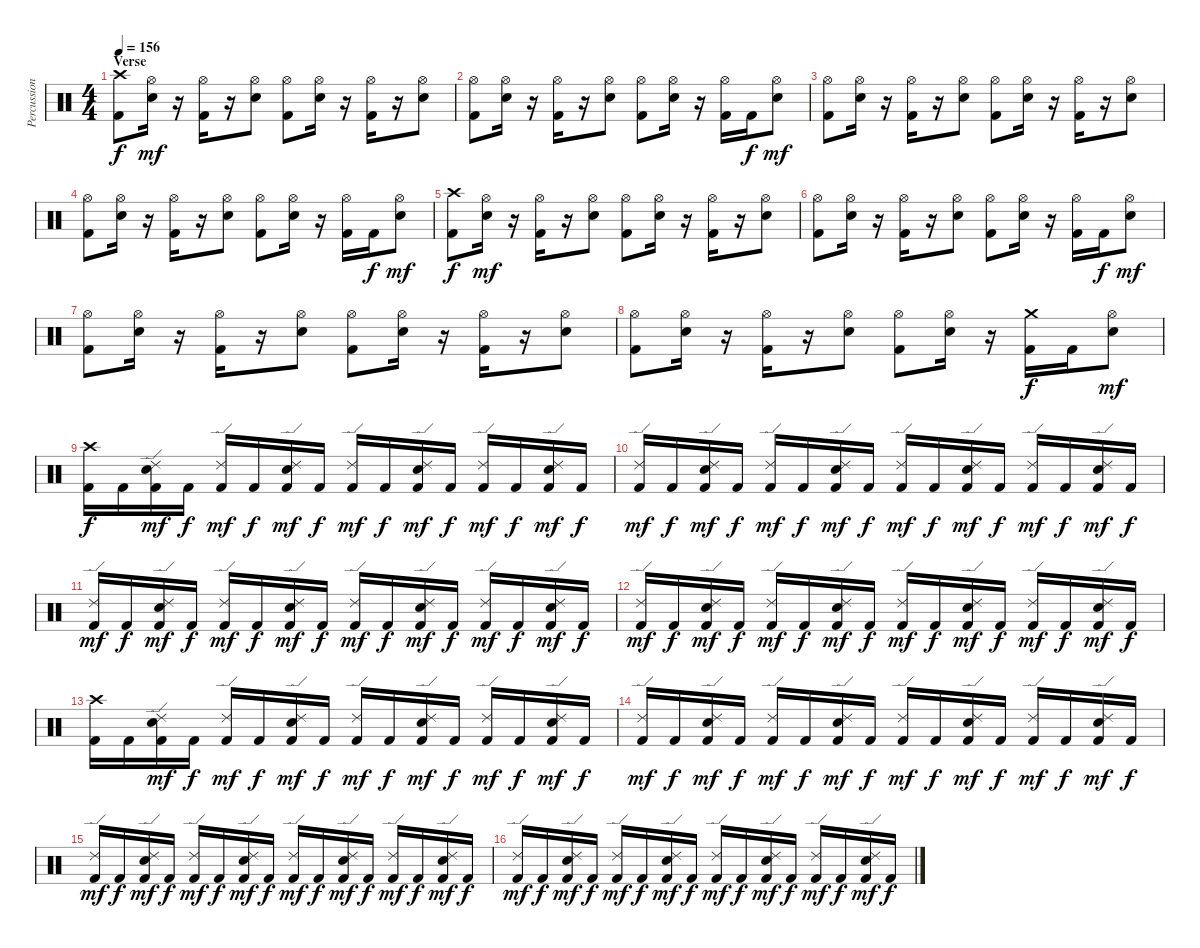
\track ("Percussion" "Percussion") {instrument percussion}
\staff {score}
\articulation defaults
\ts (4 4)
\section ("" "Verse")
\tempo 156
\clef neutral
\ks c
("Crash high (hit)" "Kick (hit) 2").8{dy f} ("Hi-Hat (open)" "Electric Snare (hit)").16{dy mf} r.16 ("Hi-Hat (open)" "Kick (hit) 2").16 r.16 ("Hi-Hat (open)" "Electric Snare (hit)").8 ("Hi-Hat (open)" "Kick (hit) 2").8 ("Hi-Hat (open)" "Electric Snare (hit)").16 r.16 ("Hi-Hat (open)" "Kick (hit) 2").16 r.16 ("Hi-Hat (open)" "Electric Snare (hit)").8 |
("Hi-Hat (open)" "Kick (hit) 2").8 ("Hi-Hat (open)" "Electric Snare (hit)").16 r.16 ("Hi-Hat (open)" "Kick (hit) 2").16 r.16 ("Hi-Hat (open)" "Electric Snare (hit)").8 ("Hi-Hat (open)" "Kick (hit) 2").8 ("Hi-Hat (open)" "Electric Snare (hit)").16 r.16 ("Hi-Hat (open)" "Kick (hit) 2").16 "Kick (hit) 2".16{dy f} ("Hi-Hat (open)" "Electric Snare (hit)").8{dy mf} |
("Hi-Hat (open)" "Kick (hit) 2").8 ("Hi-Hat (open)" "Electric Snare (hit)").16 r.16 ("Hi-Hat (open)" "Kick (hit) 2").16 r.16 ("Hi-Hat (open)" "Electric Snare (hit)").8 ("Hi-Hat (open)" "Kick (hit) 2").8 ("Hi-Hat (open)" "Electric Snare (hit)").16 r.16 ("Hi-Hat (open)" "Kick (hit) 2").16 r.16 ("Hi-Hat (open)" "Electric Snare (hit)").8 |
("Hi-Hat (open)" "Kick (hit) 2").8 ("Hi-Hat (open)" "Electric Snare (hit)").16 r.16 ("Hi-Hat (open)" "Kick (hit) 2").16 r.16 ("Hi-Hat (open)" "Electric Snare (hit)").8 ("Hi-Hat (open)" "Kick (hit) 2").8 ("Hi-Hat (open)" "Electric Snare (hit)").16 r.16 ("Hi-Hat (open)" "Kick (hit) 2").16 "Kick (hit) 2".16{dy f} ("Hi-Hat (open)" "Electric Snare (hit)").8{dy mf} |
("Crash high (hit)" "Kick (hit) 2").8{dy f} ("Hi-Hat (open)" "Electric Snare (hit)").16{dy mf} r.16 ("Hi-Hat (open)" "Kick (hit) 2").16 r.16 ("Hi-Hat (open)" "Electric Snare (hit)").8 ("Hi-Hat (open)" "Kick (hit) 2").8 ("Hi-Hat (open)" "Electric Snare (hit)").16 r.16 ("Hi-Hat (open)" "Kick (hit) 2").16 r.16 ("Hi-Hat (open)" "Electric Snare (hit)").8 |
("Hi-Hat (open)" "Kick (hit) 2").8 ("Hi-Hat (open)" "Electric Snare (hit)").16 r.16 ("Hi-Hat (open)" "Kick (hit) 2").16 r.16 ("Hi-Hat (open)" "Electric Snare (hit)").8 ("Hi-Hat (open)" "Kick (hit) 2").8 ("Hi-Hat (open)" "Electric Snare (hit)").16 r.16 ("Hi-Hat (open)" "Kick (hit) 2").16 "Kick (hit) 2".16{dy f} ("Hi-Hat (open)" "Electric Snare (hit)").8{dy mf} |
("Hi-Hat (open)" "Kick (hit) 2").8 ("Hi-Hat (open)" "Electric Snare (hit)").16 r.16 ("Hi-Hat (open)" "Kick (hit) 2").16 r.16 ("Hi-Hat (open)" "Electric Snare (hit)").8 ("Hi-Hat (open)" "Kick (hit) 2").8 ("Hi-Hat (open)" "Electric Snare (hit)").16 r.16 ("Hi-Hat (open)" "Kick (hit) 2").16 r.16 ("Hi-Hat (open)" "Electric Snare (hit)").8 |
("Hi-Hat (open)" "Kick (hit) 2").8 ("Hi-Hat (open)" "Electric Snare (hit)").16 r.16 ("Hi-Hat (open)" "Kick (hit) 2").16 r.16 ("Hi-Hat (open)" "Electric Snare (hit)").8 ("Hi-Hat (open)" "Kick (hit) 2").8 ("Hi-Hat (open)" "Electric Snare (hit)").16 r.16 ("Crash medium (hit)" "Kick (hit) 2").16{dy f} "Kick (hit) 2".16 ("Hi-Hat (open)" "Electric Snare (hit)").8{dy mf} |
("Crash high (hit)" "Kick (hit) 2").16{dy f} "Kick (hit) 2".16 ("Ride (edge) 2" "Electric Snare (hit)" "Kick (hit) 2").16{dy mf} "Kick (hit) 2".16{dy f} ("Ride (edge) 2" "Kick (hit) 2").16{dy mf} "Kick (hit) 2".16{dy f} ("Ride (edge) 2" "Electric Snare (hit)" "Kick (hit) 2").16{dy mf} "Kick (hit) 2".16{dy f} ("Ride (edge) 2" "Kick (hit) 2").16{dy mf} "Kick (hit) 2".16{dy f} ("Ride (edge) 2" "Electric Snare (hit)" "Kick (hit) 2").16{dy mf} "Kick (hit) 2".16{dy f} ("Ride (edge) 2" "Kick (hit) 2").16{dy mf} "Kick (hit) 2".16{dy f} ("Ride (edge) 2" "Electric Snare (hit)" "Kick (hit) 2").16{dy mf} "Kick (hit) 2".16{dy f} |
("Ride (edge) 2" "Kick (hit) 2").16{dy mf} "Kick (hit) 2".16{dy f} ("Ride (edge) 2" "Electric Snare (hit)" "Kick (hit) 2").16{dy mf} "Kick (hit) 2".16{dy f} ("Ride (edge) 2" "Kick (hit) 2").16{dy mf} "Kick (hit) 2".16{dy f} ("Ride (edge) 2" "Electric Snare (hit)" "Kick (hit) 2").16{dy mf} "Kick (hit) 2".16{dy f} ("Ride (edge) 2" "Kick (hit) 2").16{dy mf} "Kick (hit) 2".16{dy f} ("Ride (edge) 2" "Electric Snare (hit)" "Kick (hit) 2").16{dy mf} "Kick (hit) 2".16{dy f} ("Ride (edge) 2" "Kick (hit) 2").16{dy mf} "Kick (hit) 2".16{dy f} ("Ride (edge) 2" "Electric Snare (hit)" "Kick (hit) 2").16{dy mf} "Kick (hit) 2".16{dy f} |
("Ride (edge) 2" "Kick (hit) 2").16{dy mf} "Kick (hit) 2".16{dy f} ("Ride (edge) 2" "Electric Snare (hit)" "Kick (hit) 2").16{dy mf} "Kick (hit) 2".16{dy f} ("Ride (edge) 2" "Kick (hit) 2").16{dy mf} "Kick (hit) 2".16{dy f} ("Ride (edge) 2" "Electric Snare (hit)" "Kick (hit) 2").16{dy mf} "Kick (hit) 2".16{dy f} ("Ride (edge) 2" "Kick (hit) 2").16{dy mf} "Kick (hit) 2".16{dy f} ("Ride (edge) 2" "Electric Snare (hit)" "Kick (hit) 2").16{dy mf} "Kick (hit) 2".16{dy f} ("Ride (edge) 2" "Kick (hit) 2").16{dy mf} "Kick (hit) 2".16{dy f} ("Ride (edge) 2" "Electric Snare (hit)" "Kick (hit) 2").16{dy mf} "Kick (hit) 2".16{dy f} |
("Ride (edge) 2" "Kick (hit) 2").16{dy mf} "Kick (hit) 2".16{dy f} ("Ride (edge) 2" "Electric Snare (hit)" "Kick (hit) 2").16{dy mf} "Kick (hit) 2".16{dy f} ("Ride (edge) 2" "Kick (hit) 2").16{dy mf} "Kick (hit) 2".16{dy f} ("Ride (edge) 2" "Electric Snare (hit)" "Kick (hit) 2").16{dy mf} "Kick (hit) 2".16{dy f} ("Ride (edge) 2" "Kick (hit) 2").16{dy mf} "Kick (hit) 2".16{dy f} ("Ride (edge) 2" "Electric Snare (hit)" "Kick (hit) 2").16{dy mf} "Kick (hit) 2".16{dy f} ("Ride (edge) 2" "Kick (hit) 2").16{dy mf} "Kick (hit) 2".16{dy f} ("Ride (edge) 2" "Electric Snare (hit)" "Kick (hit) 2").16{dy mf} "Kick (hit) 2".16{dy f} |
("Crash high (hit)" "Kick (hit) 2").16 "Kick (hit) 2".16 ("Ride (edge) 2" "Electric Snare (hit)" "Kick (hit) 2").16{dy mf} "Kick (hit) 2".16{dy f} ("Ride (edge) 2" "Kick (hit) 2").16{dy mf} "Kick (hit) 2".16{dy f} ("Ride (edge) 2" "Electric Snare (hit)" "Kick (hit) 2").16{dy mf} "Kick (hit) 2".16{dy f} ("Ride (edge) 2" "Kick (hit) 2").16{dy mf} "Kick (hit) 2".16{dy f} ("Ride (edge) 2" "Electric Snare (hit)" "Kick (hit) 2").16{dy mf} "Kick (hit) 2".16{dy f} ("Ride (edge) 2" "Kick (hit) 2").16{dy mf} "Kick (hit) 2".16{dy f} ("Ride (edge) 2" "Electric Snare (hit)" "Kick (hit) 2").16{dy mf} "Kick (hit) 2".16{dy f} |
("Ride (edge) 2" "Kick (hit) 2").16{dy mf} "Kick (hit) 2".16{dy f} ("Ride (edge) 2" "Electric Snare (hit)" "Kick (hit) 2").16{dy mf} "Kick (hit) 2".16{dy f} ("Ride (edge) 2" "Kick (hit) 2").16{dy mf} "Kick (hit) 2".16{dy f} ("Ride (edge) 2" "Electric Snare (hit)" "Kick (hit) 2").16{dy mf} "Kick (hit) 2".16{dy f} ("Ride (edge) 2" "Kick (hit) 2").16{dy mf} "Kick (hit) 2".16{dy f} ("Ride (edge) 2" "Electric Snare (hit)" "Kick (hit) 2").16{dy mf} "Kick (hit) 2".16{dy f} ("Ride (edge) 2" "Kick (hit) 2").16{dy mf} "Kick (hit) 2".16{dy f} ("Ride (edge) 2" "Electric Snare (hit)" "Kick (hit) 2").16{dy mf} "Kick (hit) 2".16{dy f} |
("Ride (edge) 2" "Kick (hit) 2").16{dy mf} "Kick (hit) 2".16{dy f} ("Ride (edge) 2" "Electric Snare (hit)" "Kick (hit) 2").16{dy mf} "Kick (hit) 2".16{dy f} ("Ride (edge) 2" "Kick (hit) 2").16{dy mf} "Kick (hit) 2".16{dy f} ("Ride (edge) 2" "Electric Snare (hit)" "Kick (hit) 2").16{dy mf} "Kick (hit) 2".16{dy f} ("Ride (edge) 2" "Kick (hit) 2").16{dy mf} "Kick (hit) 2".16{dy f} ("Ride (edge) 2" "Electric Snare (hit)" "Kick (hit) 2").16{dy mf} "Kick (hit) 2".16{dy f} ("Ride (edge) 2" "Kick (hit) 2").16{dy mf} "Kick (hit) 2".16{dy f} ("Ride (edge) 2" "Electric Snare (hit)" "Kick (hit) 2").16{dy mf} "Kick (hit) 2".16{dy f} |
("Ride (edge) 2" "Kick (hit) 2").16{dy mf} "Kick (hit) 2".16{dy f} ("Ride (edge) 2" "Electric Snare (hit)" "Kick (hit) 2").16{dy mf} "Kick (hit) 2".16{dy f} ("Ride (edge) 2" "Kick (hit) 2").16{dy mf} "Kick (hit) 2".16{dy f} ("Ride (edge) 2" "Electric Snare (hit)" "Kick (hit) 2").16{dy mf} "Kick (hit) 2".16{dy f} ("Ride (edge) 2" "Kick (hit) 2").16{dy mf} "Kick (hit) 2".16{dy f} ("Ride (edge) 2" "Electric Snare (hit)" "Kick (hit) 2").16{dy mf} "Kick (hit) 2".16{dy f} ("Ride (edge) 2" "Kick (hit) 2").16{dy mf} "Kick (hit) 2".16{dy f} ("Ride (edge) 2" "Electric Snare (hit)" "Kick (hit) 2").16{dy mf} "Kick (hit) 2".16{dy f}
